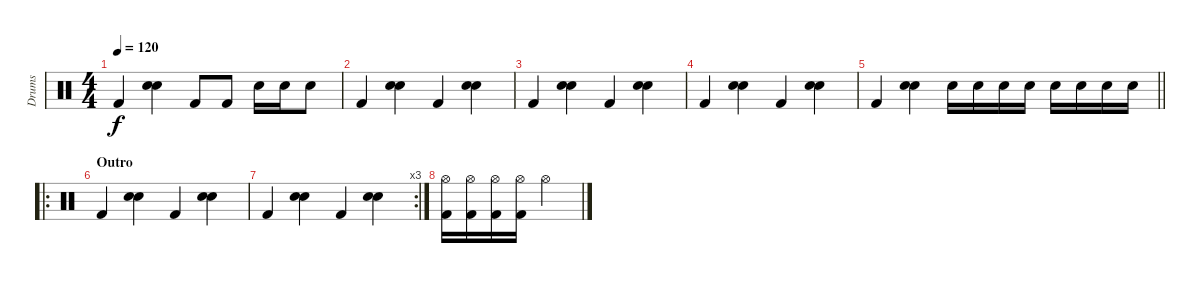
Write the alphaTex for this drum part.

\track ("Drums" "Drums") {instrument percussion}
\staff {score}
\articulation defaults
\ts (4 4)
\section ("" "")
\tempo 120
\clef neutral
\ks c "Kick (hit) 2".4{dy f}
("Electric Snare (hit)" "Snare (hit) 2").4 "Kick (hit) 2".8 "Kick (hit) 2".8 "Electric Snare (hit)".16 "Electric Snare (hit)".16 "Snare (hit) 2".8 |
"Kick (hit) 2".4 ("Electric Snare (hit)" "Snare (hit) 2").4 "Kick (hit) 2".4 ("Electric Snare (hit)" "Snare (hit) 2").4 |
"Kick (hit) 2".4 ("Electric Snare (hit)" "Snare (hit) 2").4 "Kick (hit) 2".4 ("Electric Snare (hit)" "Snare (hit) 2").4 |
"Kick (hit) 2".4 ("Electric Snare (hit)" "Snare (hit) 2").4 "Kick (hit) 2".4 ("Electric Snare (hit)" "Snare (hit) 2").4 |
\barLineRight lightlight "Kick (hit) 2".4
("Electric Snare (hit)" "Snare (hit) 2").4 "Snare (hit) 2".16 "Snare (hit) 2".16 "Snare (hit) 2".16 "Snare (hit) 2".16 "Snare (hit) 2".16 "Snare (hit) 2".16 "Snare (hit) 2".16 "Snare (hit) 2".16 |
\ro
\section ("" "Outro")
"Kick (hit) 2".4 ("Electric Snare (hit)" "Snare (hit) 2").4 "Kick (hit) 2".4 ("Electric Snare (hit)" "Snare (hit) 2").4 |
\rc 3 "Kick (hit) 2".4
("Electric Snare (hit)" "Snare (hit) 2").4 "Kick (hit) 2".4 ("Electric Snare (hit)" "Snare (hit) 2").4 |
("Hi-Hat (open)" "Kick (hit) 2").16 ("Hi-Hat (open)" "Kick (hit) 2").16 ("Hi-Hat (open)" "Kick (hit) 2").16 ("Hi-Hat (open)" "Kick (hit) 2").16 "Hi-Hat (open)".4
